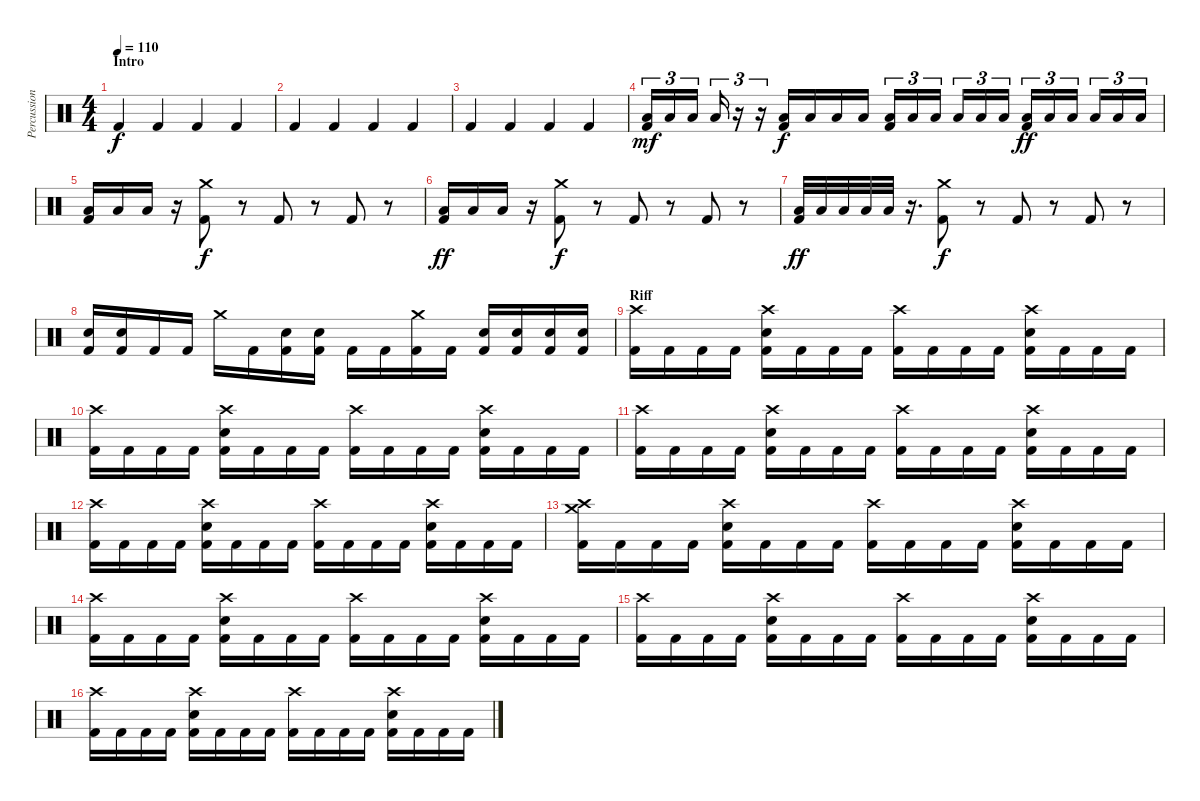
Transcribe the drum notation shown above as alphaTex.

\track ("Percussions" "Percussion") {instrument percussion}
\staff {score}
\articulation defaults
\ts (4 4)
\section ("" "Intro")
\tempo 110
\clef neutral
\ks c "Kick (hit) 2".4{dy f} "Kick (hit) 2".4 "Kick (hit) 2".4 "Kick (hit) 2".4
|
"Kick (hit) 2".4 "Kick (hit) 2".4 "Kick (hit) 2".4 "Kick (hit) 2".4 |
"Kick (hit) 2".4 "Kick (hit) 2".4 "Kick (hit) 2".4 "Kick (hit) 2".4 |
("Low Tom (hit)" "Kick (hit) 2").16{tu (3 2) dy mf} "Low Tom (hit)".16{tu (3 2)} "Low Tom (hit)".16{tu (3 2)} "Low Tom (hit)".16{tu (3 2)} r.16{tu (3 2)} r.16{tu (3 2)} ("Low Tom (hit)" "Kick (hit) 2").16{dy f} "Low Tom (hit)".16 "Low Tom (hit)".16 "Low Tom (hit)".16 ("Low Tom (hit)" "Kick (hit) 2").16{tu (3 2)} "Low Tom (hit)".16{tu (3 2)} "Low Tom (hit)".16{tu (3 2)} "Low Tom (hit)".16{tu (3 2)} "Low Tom (hit)".16{tu (3 2)} "Low Tom (hit)".16{tu (3 2)} ("Low Tom (hit)" "Kick (hit) 2").16{tu (3 2) dy ff} "Low Tom (hit)".16{tu (3 2)} "Low Tom (hit)".16{tu (3 2)} "Low Tom (hit)".16{tu (3 2)} "Low Tom (hit)".16{tu (3 2)} "Low Tom (hit)".16{tu (3 2)} |
("Low Tom (hit)" "Kick (hit) 2").16 "Low Tom (hit)".16 "Low Tom (hit)".16 r.16 ("Crash medium (hit)" "Kick (hit) 2").8{dy f} r.8 "Kick (hit) 2".8 r.8 "Kick (hit) 2".8 r.8 |
("Low Tom (hit)" "Kick (hit) 2").16{dy ff} "Low Tom (hit)".16 "Low Tom (hit)".16 r.16 ("Crash medium (hit)" "Kick (hit) 2").8{dy f} r.8 "Kick (hit) 2".8 r.8 "Kick (hit) 2".8 r.8 |
("Low Tom (hit)" "Kick (hit) 2").32{dy ff} "Low Tom (hit)".32 "Low Tom (hit)".32 "Low Tom (hit)".32 "Low Tom (hit)".32 r.16{d} ("Crash medium (hit)" "Kick (hit) 2").8{dy f} r.8 "Kick (hit) 2".8 r.8 "Kick (hit) 2".8 r.8 |
("Electric Snare (hit)" "Kick (hit) 2").16 ("Electric Snare (hit)" "Kick (hit) 2").16 "Kick (hit) 2".16 "Kick (hit) 2".16 "Crash medium (hit)".16 "Kick (hit) 2".16 ("Electric Snare (hit)" "Kick (hit) 2").16 ("Electric Snare (hit)" "Kick (hit) 2").16 "Kick (hit) 2".16 "Kick (hit) 2".16 ("Crash medium (hit)" "Kick (hit) 2").16 "Kick (hit) 2".16 ("Electric Snare (hit)" "Kick (hit) 2").16 ("Electric Snare (hit)" "Kick (hit) 2").16 ("Electric Snare (hit)" "Kick (hit) 2").16 ("Electric Snare (hit)" "Kick (hit) 2").16 |
\section ("" "Riff")
("Crash high (hit)" "Kick (hit) 2").16 "Kick (hit) 2".16 "Kick (hit) 2".16 "Kick (hit) 2".16 ("Crash high (hit)" "Electric Snare (hit)" "Kick (hit) 2").16 "Kick (hit) 2".16 "Kick (hit) 2".16 "Kick (hit) 2".16 ("Crash high (hit)" "Kick (hit) 2").16 "Kick (hit) 2".16 "Kick (hit) 2".16 "Kick (hit) 2".16 ("Crash high (hit)" "Electric Snare (hit)" "Kick (hit) 2").16 "Kick (hit) 2".16 "Kick (hit) 2".16 "Kick (hit) 2".16 |
("Crash high (hit)" "Kick (hit) 2").16 "Kick (hit) 2".16 "Kick (hit) 2".16 "Kick (hit) 2".16 ("Crash high (hit)" "Electric Snare (hit)" "Kick (hit) 2").16 "Kick (hit) 2".16 "Kick (hit) 2".16 "Kick (hit) 2".16 ("Crash high (hit)" "Kick (hit) 2").16 "Kick (hit) 2".16 "Kick (hit) 2".16 "Kick (hit) 2".16 ("Crash high (hit)" "Electric Snare (hit)" "Kick (hit) 2").16 "Kick (hit) 2".16 "Kick (hit) 2".16 "Kick (hit) 2".16 |
("Crash high (hit)" "Kick (hit) 2").16 "Kick (hit) 2".16 "Kick (hit) 2".16 "Kick (hit) 2".16 ("Crash high (hit)" "Electric Snare (hit)" "Kick (hit) 2").16 "Kick (hit) 2".16 "Kick (hit) 2".16 "Kick (hit) 2".16 ("Crash high (hit)" "Kick (hit) 2").16 "Kick (hit) 2".16 "Kick (hit) 2".16 "Kick (hit) 2".16 ("Crash high (hit)" "Electric Snare (hit)" "Kick (hit) 2").16 "Kick (hit) 2".16 "Kick (hit) 2".16 "Kick (hit) 2".16 |
("Crash high (hit)" "Kick (hit) 2").16 "Kick (hit) 2".16 "Kick (hit) 2".16 "Kick (hit) 2".16 ("Crash high (hit)" "Electric Snare (hit)" "Kick (hit) 2").16 "Kick (hit) 2".16 "Kick (hit) 2".16 "Kick (hit) 2".16 ("Crash high (hit)" "Kick (hit) 2").16 "Kick (hit) 2".16 "Kick (hit) 2".16 "Kick (hit) 2".16 ("Crash high (hit)" "Electric Snare (hit)" "Kick (hit) 2").16 "Kick (hit) 2".16 "Kick (hit) 2".16 "Kick (hit) 2".16 |
("Crash medium (hit)" "Crash high (hit)" "Kick (hit) 2").16 "Kick (hit) 2".16 "Kick (hit) 2".16 "Kick (hit) 2".16 ("Crash high (hit)" "Electric Snare (hit)" "Kick (hit) 2").16 "Kick (hit) 2".16 "Kick (hit) 2".16 "Kick (hit) 2".16 ("Crash high (hit)" "Kick (hit) 2").16 "Kick (hit) 2".16 "Kick (hit) 2".16 "Kick (hit) 2".16 ("Crash high (hit)" "Electric Snare (hit)" "Kick (hit) 2").16 "Kick (hit) 2".16 "Kick (hit) 2".16 "Kick (hit) 2".16 |
("Crash high (hit)" "Kick (hit) 2").16 "Kick (hit) 2".16 "Kick (hit) 2".16 "Kick (hit) 2".16 ("Crash high (hit)" "Electric Snare (hit)" "Kick (hit) 2").16 "Kick (hit) 2".16 "Kick (hit) 2".16 "Kick (hit) 2".16 ("Crash high (hit)" "Kick (hit) 2").16 "Kick (hit) 2".16 "Kick (hit) 2".16 "Kick (hit) 2".16 ("Crash high (hit)" "Electric Snare (hit)" "Kick (hit) 2").16 "Kick (hit) 2".16 "Kick (hit) 2".16 "Kick (hit) 2".16 |
("Crash high (hit)" "Kick (hit) 2").16 "Kick (hit) 2".16 "Kick (hit) 2".16 "Kick (hit) 2".16 ("Crash high (hit)" "Electric Snare (hit)" "Kick (hit) 2").16 "Kick (hit) 2".16 "Kick (hit) 2".16 "Kick (hit) 2".16 ("Crash high (hit)" "Kick (hit) 2").16 "Kick (hit) 2".16 "Kick (hit) 2".16 "Kick (hit) 2".16 ("Crash high (hit)" "Electric Snare (hit)" "Kick (hit) 2").16 "Kick (hit) 2".16 "Kick (hit) 2".16 "Kick (hit) 2".16 |
("Crash high (hit)" "Kick (hit) 2").16 "Kick (hit) 2".16 "Kick (hit) 2".16 "Kick (hit) 2".16 ("Crash high (hit)" "Electric Snare (hit)" "Kick (hit) 2").16 "Kick (hit) 2".16 "Kick (hit) 2".16 "Kick (hit) 2".16 ("Crash high (hit)" "Kick (hit) 2").16 "Kick (hit) 2".16 "Kick (hit) 2".16 "Kick (hit) 2".16 ("Crash high (hit)" "Electric Snare (hit)" "Kick (hit) 2").16 "Kick (hit) 2".16 "Kick (hit) 2".16 "Kick (hit) 2".16
